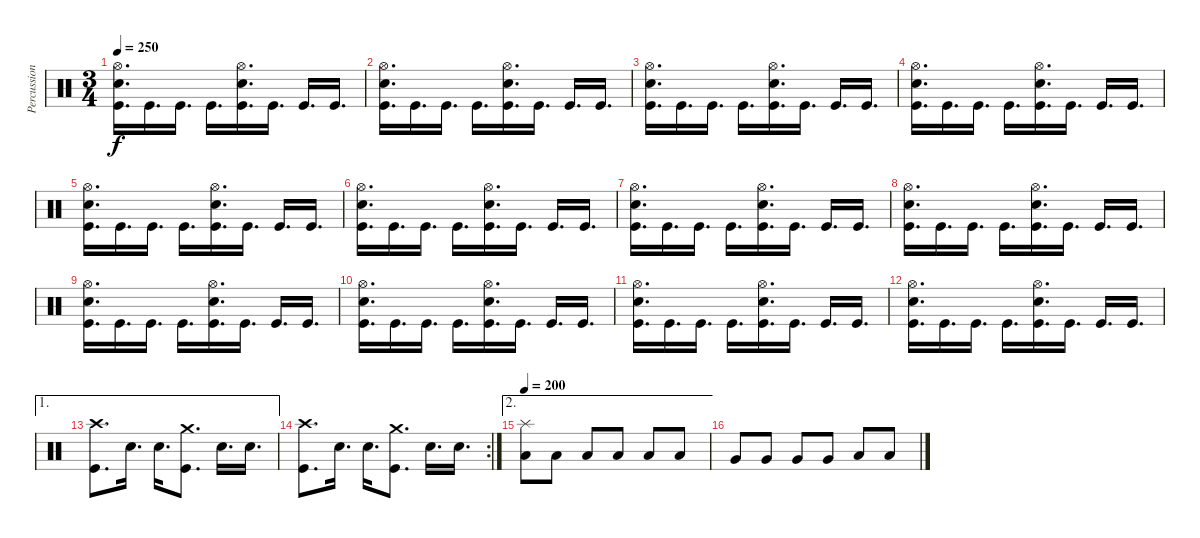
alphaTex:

\track ("Percussion" "Percussion") {instrument percussion}
\staff {score}
\articulation defaults
\ts (3 4)
\tempo 250
\clef neutral
\ks c
("Hi-Hat (open)" "Snare (hit) 2" "Kick (hit)").16{d dy f} "Kick (hit)".16{d} "Kick (hit)".16{d} "Kick (hit)".16{d} ("Hi-Hat (open)" "Snare (hit) 2" "Kick (hit)").16{d} "Kick (hit)".16{d} "Kick (hit)".16{d} "Kick (hit)".16{d} |
("Hi-Hat (open)" "Snare (hit) 2" "Kick (hit)").16{d} "Kick (hit)".16{d} "Kick (hit)".16{d} "Kick (hit)".16{d} ("Hi-Hat (open)" "Snare (hit) 2" "Kick (hit)").16{d} "Kick (hit)".16{d} "Kick (hit)".16{d} "Kick (hit)".16{d} |
("Hi-Hat (open)" "Snare (hit) 2" "Kick (hit)").16{d} "Kick (hit)".16{d} "Kick (hit)".16{d} "Kick (hit)".16{d} ("Hi-Hat (open)" "Snare (hit) 2" "Kick (hit)").16{d} "Kick (hit)".16{d} "Kick (hit)".16{d} "Kick (hit)".16{d} |
("Hi-Hat (open)" "Snare (hit) 2" "Kick (hit)").16{d} "Kick (hit)".16{d} "Kick (hit)".16{d} "Kick (hit)".16{d} ("Hi-Hat (open)" "Snare (hit) 2" "Kick (hit)").16{d} "Kick (hit)".16{d} "Kick (hit)".16{d} "Kick (hit)".16{d} |
("Hi-Hat (open)" "Snare (hit) 2" "Kick (hit)").16{d} "Kick (hit)".16{d} "Kick (hit)".16{d} "Kick (hit)".16{d} ("Hi-Hat (open)" "Snare (hit) 2" "Kick (hit)").16{d} "Kick (hit)".16{d} "Kick (hit)".16{d} "Kick (hit)".16{d} |
("Hi-Hat (open)" "Snare (hit) 2" "Kick (hit)").16{d} "Kick (hit)".16{d} "Kick (hit)".16{d} "Kick (hit)".16{d} ("Hi-Hat (open)" "Snare (hit) 2" "Kick (hit)").16{d} "Kick (hit)".16{d} "Kick (hit)".16{d} "Kick (hit)".16{d} |
("Hi-Hat (open)" "Snare (hit) 2" "Kick (hit)").16{d} "Kick (hit)".16{d} "Kick (hit)".16{d} "Kick (hit)".16{d} ("Hi-Hat (open)" "Snare (hit) 2" "Kick (hit)").16{d} "Kick (hit)".16{d} "Kick (hit)".16{d} "Kick (hit)".16{d} |
("Hi-Hat (open)" "Snare (hit) 2" "Kick (hit)").16{d} "Kick (hit)".16{d} "Kick (hit)".16{d} "Kick (hit)".16{d} ("Hi-Hat (open)" "Snare (hit) 2" "Kick (hit)").16{d} "Kick (hit)".16{d} "Kick (hit)".16{d} "Kick (hit)".16{d} |
("Hi-Hat (open)" "Snare (hit) 2" "Kick (hit)").16{d} "Kick (hit)".16{d} "Kick (hit)".16{d} "Kick (hit)".16{d} ("Hi-Hat (open)" "Snare (hit) 2" "Kick (hit)").16{d} "Kick (hit)".16{d} "Kick (hit)".16{d} "Kick (hit)".16{d} |
("Hi-Hat (open)" "Snare (hit) 2" "Kick (hit)").16{d} "Kick (hit)".16{d} "Kick (hit)".16{d} "Kick (hit)".16{d} ("Hi-Hat (open)" "Snare (hit) 2" "Kick (hit)").16{d} "Kick (hit)".16{d} "Kick (hit)".16{d} "Kick (hit)".16{d} |
("Hi-Hat (open)" "Snare (hit) 2" "Kick (hit)").16{d} "Kick (hit)".16{d} "Kick (hit)".16{d} "Kick (hit)".16{d} ("Hi-Hat (open)" "Snare (hit) 2" "Kick (hit)").16{d} "Kick (hit)".16{d} "Kick (hit)".16{d} "Kick (hit)".16{d} |
("Hi-Hat (open)" "Snare (hit) 2" "Kick (hit)").16{d} "Kick (hit)".16{d} "Kick (hit)".16{d} "Kick (hit)".16{d} ("Hi-Hat (open)" "Snare (hit) 2" "Kick (hit)").16{d} "Kick (hit)".16{d} "Kick (hit)".16{d} "Kick (hit)".16{d} |
\ae 1
("Crash high (hit)" "Kick (hit)").8{d} "Snare (hit) 2".16{d} "Snare (hit) 2".16{d} ("Crash medium (hit)" "Kick (hit)").8{d} "Snare (hit) 2".16{d} "Snare (hit) 2".16{d} |
\rc 2
("Crash high (hit)" "Kick (hit)").8{d} "Snare (hit) 2".16{d} "Snare (hit) 2".16{d} ("Crash medium (hit)" "Kick (hit)").8{d} "Snare (hit) 2".16{d} "Snare (hit) 2".16{d} |
\ae 2
\tempo 200
("Splash (hit)" "Low Tom (hit)").8 "Low Tom (hit)".8 "Low Tom (hit)".8 "Low Tom (hit)".8 "Low Tom (hit)".8 "Low Tom (hit)".8 |
"Very Low Tom (hit)".8 "Very Low Tom (hit)".8 "Very Low Tom (hit)".8 "Very Low Tom (hit)".8 "Low Floor Tom (hit)".8 "Low Floor Tom (hit)".8
